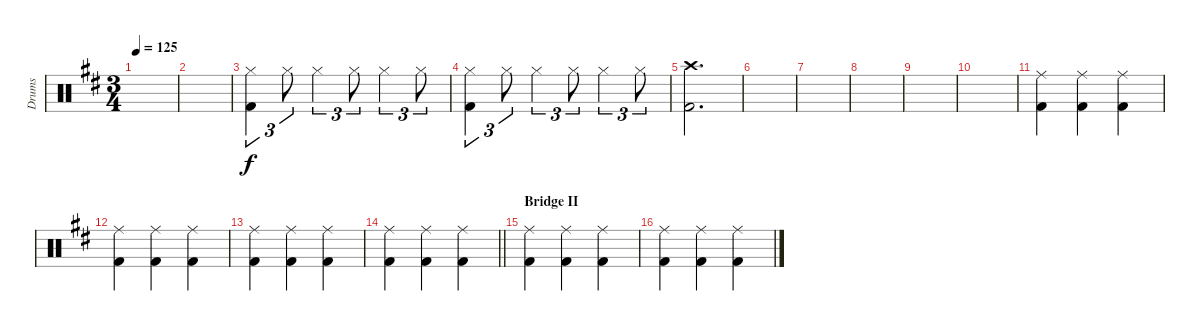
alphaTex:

\track ("Drums" "Drums") {instrument percussion}
\staff {score}
\articulation defaults
\ts (3 4)
\tempo 125
\clef neutral
\ks d
|
|
("Hi-Hat (closed)" "Kick (hit) 2").4{tu (3 2)} "Hi-Hat (closed)".8{tu (3 2)} "Hi-Hat (closed)".4{tu (3 2)} "Hi-Hat (closed)".8{tu (3 2)} "Hi-Hat (closed)".4{tu (3 2)} "Hi-Hat (closed)".8{tu (3 2)} |
("Hi-Hat (closed)" "Kick (hit) 2").4{tu (3 2)} "Hi-Hat (closed)".8{tu (3 2)} "Hi-Hat (closed)".4{tu (3 2)} "Hi-Hat (closed)".8{tu (3 2)} "Hi-Hat (closed)".4{tu (3 2)} "Hi-Hat (closed)".8{tu (3 2)} |
("Crash high (hit)" "Kick (hit) 2").2{d} |
|
|
|
|
|
("Ride (middle)" "Kick (hit) 2").4 ("Ride (middle)" "Kick (hit) 2").4 ("Ride (middle)" "Kick (hit) 2").4 |
("Ride (middle)" "Kick (hit) 2").4 ("Ride (middle)" "Kick (hit) 2").4 ("Ride (middle)" "Kick (hit) 2").4 |
("Ride (middle)" "Kick (hit) 2").4 ("Ride (middle)" "Kick (hit) 2").4 ("Ride (middle)" "Kick (hit) 2").4 |
\barLineRight lightlight
("Ride (middle)" "Kick (hit) 2").4 ("Ride (middle)" "Kick (hit) 2").4 ("Ride (middle)" "Kick (hit) 2").4 |
\section ("" "Bridge II")
("Ride (middle)" "Kick (hit) 2").4 ("Ride (middle)" "Kick (hit) 2").4 ("Ride (middle)" "Kick (hit) 2").4 |
("Ride (middle)" "Kick (hit) 2").4 ("Ride (middle)" "Kick (hit) 2").4 ("Ride (middle)" "Kick (hit) 2").4
